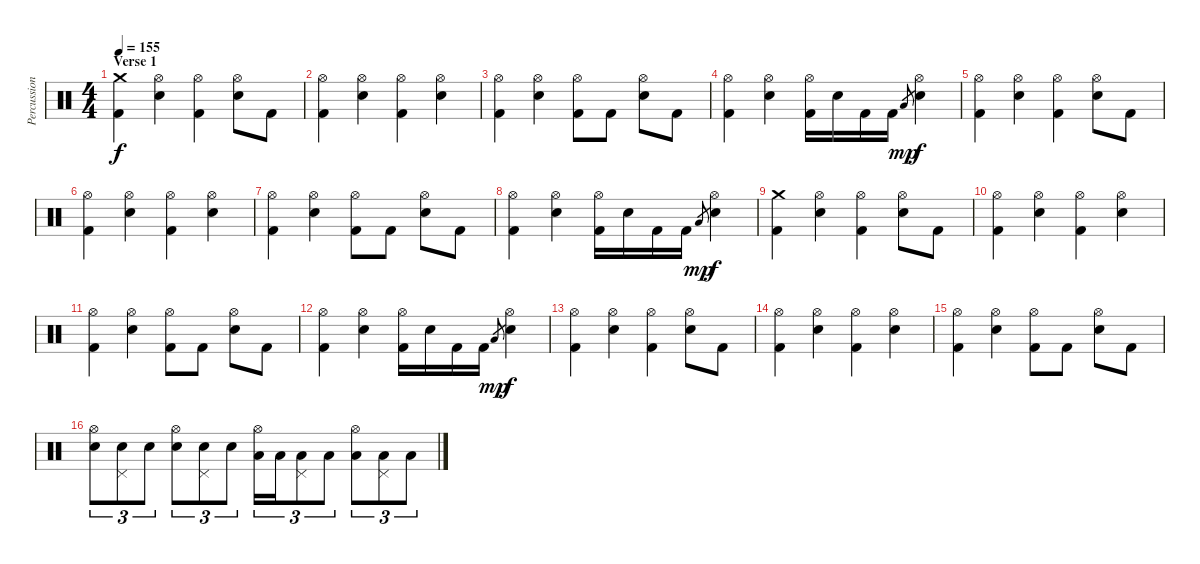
\track ("Percussion" "Percussion") {instrument percussion}
\staff {score}
\articulation defaults
\ts (4 4)
\section ("" "Verse 1")
\tempo 155
\clef neutral
\ks c
("Crash medium (hit)" "Kick (hit) 2").4{dy f} ("Hi-Hat (open)" "Electric Snare (hit)").4 ("Hi-Hat (open)" "Kick (hit) 2").4 ("Hi-Hat (open)" "Electric Snare (hit)").8 "Kick (hit) 2".8 |
("Hi-Hat (open)" "Kick (hit) 2").4 ("Hi-Hat (open)" "Electric Snare (hit)").4 ("Hi-Hat (open)" "Kick (hit) 2").4 ("Hi-Hat (open)" "Electric Snare (hit)").4 |
("Hi-Hat (open)" "Kick (hit) 2").4 ("Hi-Hat (open)" "Electric Snare (hit)").4 ("Hi-Hat (open)" "Kick (hit) 2").8 "Kick (hit) 2".8 ("Hi-Hat (open)" "Electric Snare (hit)").8 "Kick (hit) 2".8 |
("Hi-Hat (open)" "Kick (hit) 2").4 ("Hi-Hat (open)" "Electric Snare (hit)").4 ("Hi-Hat (open)" "Kick (hit) 2").16 "Electric Snare (hit)".16 "Kick (hit) 2".16 "Kick (hit) 2".16 "Low Tom (hit)".8{gr dy mp} ("Hi-Hat (open)" "Electric Snare (hit)").4{dy f} |
("Hi-Hat (open)" "Kick (hit) 2").4 ("Hi-Hat (open)" "Electric Snare (hit)").4 ("Hi-Hat (open)" "Kick (hit) 2").4 ("Hi-Hat (open)" "Electric Snare (hit)").8 "Kick (hit) 2".8 |
("Hi-Hat (open)" "Kick (hit) 2").4 ("Hi-Hat (open)" "Electric Snare (hit)").4 ("Hi-Hat (open)" "Kick (hit) 2").4 ("Hi-Hat (open)" "Electric Snare (hit)").4 |
("Hi-Hat (open)" "Kick (hit) 2").4 ("Hi-Hat (open)" "Electric Snare (hit)").4 ("Hi-Hat (open)" "Kick (hit) 2").8 "Kick (hit) 2".8 ("Hi-Hat (open)" "Electric Snare (hit)").8 "Kick (hit) 2".8 |
("Hi-Hat (open)" "Kick (hit) 2").4 ("Hi-Hat (open)" "Electric Snare (hit)").4 ("Hi-Hat (open)" "Kick (hit) 2").16 "Electric Snare (hit)".16 "Kick (hit) 2".16 "Kick (hit) 2".16 "Low Tom (hit)".8{gr dy mp} ("Hi-Hat (open)" "Electric Snare (hit)").4{dy f} |
("Crash medium (hit)" "Kick (hit) 2").4 ("Hi-Hat (open)" "Electric Snare (hit)").4 ("Hi-Hat (open)" "Kick (hit) 2").4 ("Hi-Hat (open)" "Electric Snare (hit)").8 "Kick (hit) 2".8 |
("Hi-Hat (open)" "Kick (hit) 2").4 ("Hi-Hat (open)" "Electric Snare (hit)").4 ("Hi-Hat (open)" "Kick (hit) 2").4 ("Hi-Hat (open)" "Electric Snare (hit)").4 |
("Hi-Hat (open)" "Kick (hit) 2").4 ("Hi-Hat (open)" "Electric Snare (hit)").4 ("Hi-Hat (open)" "Kick (hit) 2").8 "Kick (hit) 2".8 ("Hi-Hat (open)" "Electric Snare (hit)").8 "Kick (hit) 2".8 |
("Hi-Hat (open)" "Kick (hit) 2").4 ("Hi-Hat (open)" "Electric Snare (hit)").4 ("Hi-Hat (open)" "Kick (hit) 2").16 "Electric Snare (hit)".16 "Kick (hit) 2".16 "Kick (hit) 2".16 "Low Tom (hit)".8{gr dy mp} ("Hi-Hat (open)" "Electric Snare (hit)").4{dy f} |
("Hi-Hat (open)" "Kick (hit) 2").4 ("Hi-Hat (open)" "Electric Snare (hit)").4 ("Hi-Hat (open)" "Kick (hit) 2").4 ("Hi-Hat (open)" "Electric Snare (hit)").8 "Kick (hit) 2".8 |
("Hi-Hat (open)" "Kick (hit) 2").4 ("Hi-Hat (open)" "Electric Snare (hit)").4 ("Hi-Hat (open)" "Kick (hit) 2").4 ("Hi-Hat (open)" "Electric Snare (hit)").4 |
("Hi-Hat (open)" "Kick (hit) 2").4 ("Hi-Hat (open)" "Electric Snare (hit)").4 ("Hi-Hat (open)" "Kick (hit) 2").8 "Kick (hit) 2".8 ("Hi-Hat (open)" "Electric Snare (hit)").8 "Kick (hit) 2".8 |
("Hi-Hat (open)" "Electric Snare (hit)").8{tu (3 2)} ("Pedal Hi-Hat (hit)" "Electric Snare (hit)").8{tu (3 2)} "Electric Snare (hit)".8{tu (3 2)} ("Hi-Hat (open)" "Electric Snare (hit)").8{tu (3 2)} ("Pedal Hi-Hat (hit)" "Electric Snare (hit)").8{tu (3 2)} "Electric Snare (hit)".8{tu (3 2)} ("Hi-Hat (open)" "Low Tom (hit)").16{tu (3 2)} "Low Tom (hit)".16{tu (3 2)} ("Pedal Hi-Hat (hit)" "Low Tom (hit)").8{tu (3 2)} "Low Tom (hit)".8{tu (3 2)} ("Hi-Hat (open)" "Low Tom (hit)").8{tu (3 2)} ("Pedal Hi-Hat (hit)" "Low Tom (hit)").8{tu (3 2)} "Low Tom (hit)".8{tu (3 2)}
